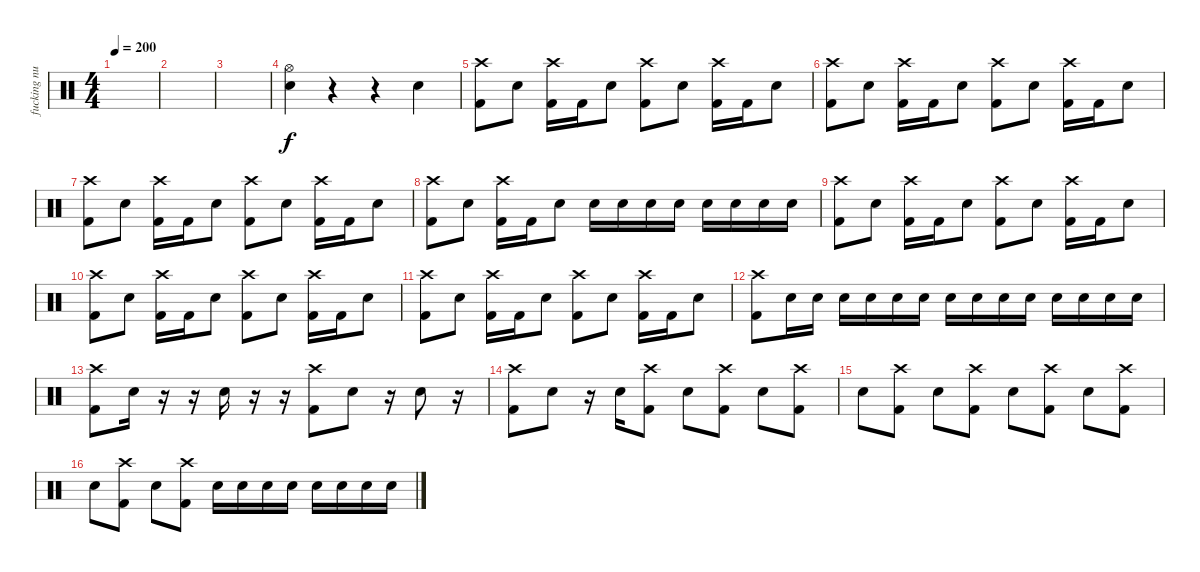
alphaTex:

\track ("fucking nuts." "fucking nu") {instrument percussion}
\staff {score}
\articulation defaults
\ts (4 4)
\tempo 200
\clef neutral
\ks c
|
|
|
("Hi-Hat (open)" "Electric Snare (hit)").4 r.4 r.4 "Electric Snare (hit)".4 |
("Crash high (hit)" "Kick (hit) 2").8 "Electric Snare (hit)".8 ("Crash high (hit)" "Kick (hit) 2").16 "Kick (hit) 2".16 "Electric Snare (hit)".8 ("Crash high (hit)" "Kick (hit) 2").8 "Electric Snare (hit)".8 ("Crash high (hit)" "Kick (hit) 2").16 "Kick (hit) 2".16 "Electric Snare (hit)".8 |
("Crash high (hit)" "Kick (hit) 2").8 "Electric Snare (hit)".8 ("Crash high (hit)" "Kick (hit) 2").16 "Kick (hit) 2".16 "Electric Snare (hit)".8 ("Crash high (hit)" "Kick (hit) 2").8 "Electric Snare (hit)".8 ("Crash high (hit)" "Kick (hit) 2").16 "Kick (hit) 2".16 "Electric Snare (hit)".8 |
("Crash high (hit)" "Kick (hit) 2").8 "Electric Snare (hit)".8 ("Crash high (hit)" "Kick (hit) 2").16 "Kick (hit) 2".16 "Electric Snare (hit)".8 ("Crash high (hit)" "Kick (hit) 2").8 "Electric Snare (hit)".8 ("Crash high (hit)" "Kick (hit) 2").16 "Kick (hit) 2".16 "Electric Snare (hit)".8 |
("Crash high (hit)" "Kick (hit) 2").8 "Electric Snare (hit)".8 ("Crash high (hit)" "Kick (hit) 2").16 "Kick (hit) 2".16 "Electric Snare (hit)".8 "Electric Snare (hit)".16 "Electric Snare (hit)".16 "Electric Snare (hit)".16 "Electric Snare (hit)".16 "Electric Snare (hit)".16 "Electric Snare (hit)".16 "Electric Snare (hit)".16 "Electric Snare (hit)".16 |
("Crash high (hit)" "Kick (hit) 2").8 "Electric Snare (hit)".8 ("Crash high (hit)" "Kick (hit) 2").16 "Kick (hit) 2".16 "Electric Snare (hit)".8 ("Crash high (hit)" "Kick (hit) 2").8 "Electric Snare (hit)".8 ("Crash high (hit)" "Kick (hit) 2").16 "Kick (hit) 2".16 "Electric Snare (hit)".8 |
("Crash high (hit)" "Kick (hit) 2").8 "Electric Snare (hit)".8 ("Crash high (hit)" "Kick (hit) 2").16 "Kick (hit) 2".16 "Electric Snare (hit)".8 ("Crash high (hit)" "Kick (hit) 2").8 "Electric Snare (hit)".8 ("Crash high (hit)" "Kick (hit) 2").16 "Kick (hit) 2".16 "Electric Snare (hit)".8 |
("Crash high (hit)" "Kick (hit) 2").8 "Electric Snare (hit)".8 ("Crash high (hit)" "Kick (hit) 2").16 "Kick (hit) 2".16 "Electric Snare (hit)".8 ("Crash high (hit)" "Kick (hit) 2").8 "Electric Snare (hit)".8 ("Crash high (hit)" "Kick (hit) 2").16 "Kick (hit) 2".16 "Electric Snare (hit)".8 |
("Crash high (hit)" "Kick (hit) 2").8 "Electric Snare (hit)".16 "Electric Snare (hit)".16 "Electric Snare (hit)".16 "Electric Snare (hit)".16 "Electric Snare (hit)".16 "Electric Snare (hit)".16 "Electric Snare (hit)".16 "Electric Snare (hit)".16 "Electric Snare (hit)".16 "Electric Snare (hit)".16 "Electric Snare (hit)".16 "Electric Snare (hit)".16 "Electric Snare (hit)".16 "Electric Snare (hit)".16 |
("Crash high (hit)" "Kick (hit) 2").8 "Electric Snare (hit)".16 r.16 r.16 "Electric Snare (hit)".16 r.16 r.16 ("Crash high (hit)" "Kick (hit) 2").8 "Electric Snare (hit)".8 r.16 "Electric Snare (hit)".8 r.16 |
("Crash high (hit)" "Kick (hit) 2").8 "Electric Snare (hit)".8 r.16 "Electric Snare (hit)".16 ("Crash high (hit)" "Kick (hit) 2").8 "Electric Snare (hit)".8 ("Crash high (hit)" "Kick (hit) 2").8 "Electric Snare (hit)".8 ("Crash high (hit)" "Kick (hit) 2").8 |
"Electric Snare (hit)".8 ("Crash high (hit)" "Kick (hit) 2").8 "Electric Snare (hit)".8 ("Crash high (hit)" "Kick (hit) 2").8 "Electric Snare (hit)".8 ("Crash high (hit)" "Kick (hit) 2").8 "Electric Snare (hit)".8 ("Crash high (hit)" "Kick (hit) 2").8 |
"Electric Snare (hit)".8 ("Crash high (hit)" "Kick (hit) 2").8 "Electric Snare (hit)".8 ("Crash high (hit)" "Kick (hit) 2").8 "Electric Snare (hit)".16 "Electric Snare (hit)".16 "Electric Snare (hit)".16 "Electric Snare (hit)".16 "Electric Snare (hit)".16 "Electric Snare (hit)".16 "Electric Snare (hit)".16 "Electric Snare (hit)".16
